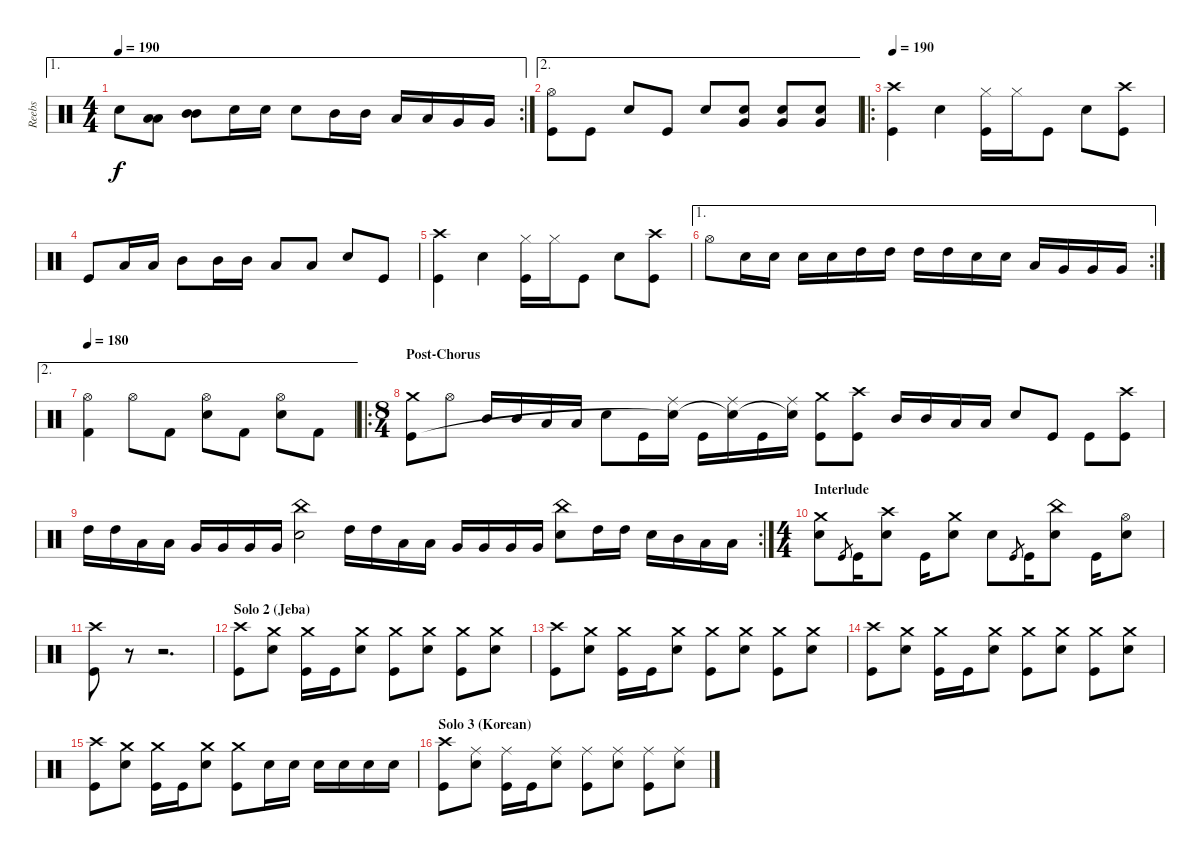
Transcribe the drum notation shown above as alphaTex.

\track ("Reebs" "Reebs") {instrument percussion}
\staff {score}
\articulation defaults
\ae 1
\rc 2
\ts (4 4)
\tempo 190
\clef neutral
\ks c "Electric Snare (hit)".8{dy f}
("Low Tom (hit)" "Low Tom (hit)").8 ("Mid Tom (hit)" "Mid Tom (hit)").8 "Electric Snare (hit)".16 "Electric Snare (hit)".16 "Electric Snare (hit)".8 "Mid Tom (hit)".16 "Mid Tom (hit)".16 "Low Tom (hit)".16 "Low Tom (hit)".16 "Very Low Tom (hit)".16 "Very Low Tom (hit)".16 |
\ae 2
("Hi-Hat (open)" "Kick (hit)").8 "Kick (hit)".8 "Electric Snare (hit)".8 "Kick (hit)".8 "Electric Snare (hit)".8 ("Very Low Tom (hit)" "Electric Snare (hit)").8 ("Very Low Tom (hit)" "Electric Snare (hit)").8 ("Very Low Tom (hit)" "Electric Snare (hit)").8 |
\ro
\tempo 190
("Crash high (hit)" "Kick (hit)").4 "Electric Snare (hit)".4 ("Hi-Hat (closed)" "Kick (hit)").16 "Hi-Hat (closed)".16 "Kick (hit)".8 "Electric Snare (hit)".8 ("Crash high (hit)" "Kick (hit)").8 |
"Kick (hit)".8 "Low Tom (hit)".16 "Low Tom (hit)".16 "Mid Tom (hit)".8 "Mid Tom (hit)".16 "Mid Tom (hit)".16 "Low Floor Tom (hit)".8 "Low Floor Tom (hit)".8 "Electric Snare (hit)".8 "Kick (hit)".8 |
("Crash high (hit)" "Kick (hit)").4 "Electric Snare (hit)".4 ("Hi-Hat (closed)" "Kick (hit)").16 "Hi-Hat (closed)".16 "Kick (hit)".8 "Electric Snare (hit)".8 ("Crash high (hit)" "Kick (hit)").8 |
\ae 1
\rc 2 "Hi-Hat (open)".8 "Electric Snare (hit)".16 "Electric Snare (hit)".16 "Electric Snare (hit)".16 "Electric Snare (hit)".16 "High Tom (hit)".16 "High Tom (hit)".16 "High Tom (hit)".16 "High Tom (hit)".16 "Electric Snare (hit)".16 "Electric Snare (hit)".16 "Low Tom (hit)".16 "Very Low Tom (hit)".16 "Very Low Tom (hit)".16 "Very Low Tom (hit)".16
|
\ae 2
\tempo 180
("Hi-Hat (open)" "Kick (hit) 2").4 "Hi-Hat (open)".8 "Kick (hit) 2".8 ("Hi-Hat (open)" "Snare (hit) 2").8 "Kick (hit) 2".8 ("Hi-Hat (open)" "Snare (hit) 2").8 "Kick (hit) 2".8 |
\ro
\ts (8 4)
\section ("" "Post-Chorus")
("Crash medium (hit)" "Kick (hit)").8 "Hi-Hat (open)".8 "Mid Tom (hit)".16 "Mid Tom (hit)".16 "Low Tom (hit)".16 "Low Tom (hit)".16 "Electric Snare (hit)".8 "Kick (hit)".16 ("Ride (middle)" "Snare (hit)"{t}).16 "Kick (hit)".16 ("Ride (middle)" "Snare (hit)"{t}).16 "Kick (hit)".16 ("Ride (middle)" "Snare (hit)"{t}).16 ("Crash medium (hit)" "Kick (hit)").8 ("Crash high (hit)" "Kick (hit)").8 "Mid Tom (hit)".16 "Mid Tom (hit)".16 "Low Tom (hit)".16 "Low Tom (hit)".16 "Electric Snare (hit)".8 "Kick (hit)".8 "Kick (hit)".8 ("Crash high (hit)" "Kick (hit)").8 |
\rc 2 "High Tom (hit)".16 "High Tom (hit)".16 "Low Tom (hit)".16 "Low Tom (hit)".16 "Very Low Tom (hit)".16 "Very Low Tom (hit)".16 "Very Low Tom (hit)".16 "Very Low Tom (hit)".16
("China (hit)" "Electric Snare (hit)").2 "High Tom (hit)".16 "High Tom (hit)".16 "Low Tom (hit)".16 "Low Tom (hit)".16 "Very Low Tom (hit)".16 "Very Low Tom (hit)".16 "Very Low Tom (hit)".16 "Very Low Tom (hit)".16 ("China (hit)" "Electric Snare (hit)").8 "High Tom (hit)".16 "High Tom (hit)".16 "Electric Snare (hit)".16 "Mid Tom (hit)".16 "Low Tom (hit)".16 "Low Tom (hit)".16 |
\ts (4 4)
\section ("" "Interlude")
("Crash medium (hit)" "Electric Snare (hit)").8 "Kick (hit)".8{gr} "Kick (hit)".16 ("Crash high (hit)" "Electric Snare (hit)").8 "Kick (hit)".16 ("Crash medium (hit)" "Electric Snare (hit)").8 "Electric Snare (hit)".8 "Kick (hit)".8{gr} "Kick (hit)".16 ("China (hit)" "Electric Snare (hit)").8 "Kick (hit)".16 ("Hi-Hat (open)" "Electric Snare (hit)").8 |
("Crash high (hit)" "Kick (hit)").8 r.8{volume 0} r.2{d} |
\section ("" "Solo 2 (Jeba)")
("Crash high (hit)" "Kick (hit)").8{volume 12} ("Crash medium (hit)" "Electric Snare (hit)").8 ("Crash medium (hit)" "Kick (hit)").16 "Kick (hit)".16 ("Crash medium (hit)" "Electric Snare (hit)").8 ("Crash medium (hit)" "Kick (hit)").8 ("Crash medium (hit)" "Electric Snare (hit)").8 ("Crash medium (hit)" "Kick (hit)").8 ("Crash medium (hit)" "Electric Snare (hit)").8 |
("Crash high (hit)" "Kick (hit)").8 ("Crash medium (hit)" "Electric Snare (hit)").8 ("Crash medium (hit)" "Kick (hit)").16 "Kick (hit)".16 ("Crash medium (hit)" "Electric Snare (hit)").8 ("Crash medium (hit)" "Kick (hit)").8 ("Crash medium (hit)" "Electric Snare (hit)").8 ("Crash medium (hit)" "Kick (hit)").8 ("Crash medium (hit)" "Electric Snare (hit)").8 |
("Crash high (hit)" "Kick (hit)").8 ("Crash medium (hit)" "Electric Snare (hit)").8 ("Crash medium (hit)" "Kick (hit)").16 "Kick (hit)".16 ("Crash medium (hit)" "Electric Snare (hit)").8 ("Crash medium (hit)" "Kick (hit)").8 ("Crash medium (hit)" "Electric Snare (hit)").8 ("Crash medium (hit)" "Kick (hit)").8 ("Crash medium (hit)" "Electric Snare (hit)").8 |
("Crash high (hit)" "Kick (hit)").8 ("Crash medium (hit)" "Electric Snare (hit)").8 ("Crash medium (hit)" "Kick (hit)").16 "Kick (hit)".16 ("Crash medium (hit)" "Electric Snare (hit)").8 ("Crash medium (hit)" "Kick (hit)").8 "Electric Snare (hit)".16 "Electric Snare (hit)".16 "Electric Snare (hit)".16 "Electric Snare (hit)".16 "Electric Snare (hit)".16 "Electric Snare (hit)".16 |
\section ("" "Solo 3 (Korean)")
("Crash high (hit)" "Kick (hit)").8 ("Ride (middle)" "Electric Snare (hit)").8 ("Ride (middle)" "Kick (hit)").16 "Kick (hit)".16 ("Ride (middle)" "Electric Snare (hit)").8 ("Ride (middle)" "Kick (hit)").8 ("Ride (middle)" "Electric Snare (hit)").8 ("Ride (middle)" "Kick (hit)").8 ("Ride (middle)" "Electric Snare (hit)").8
